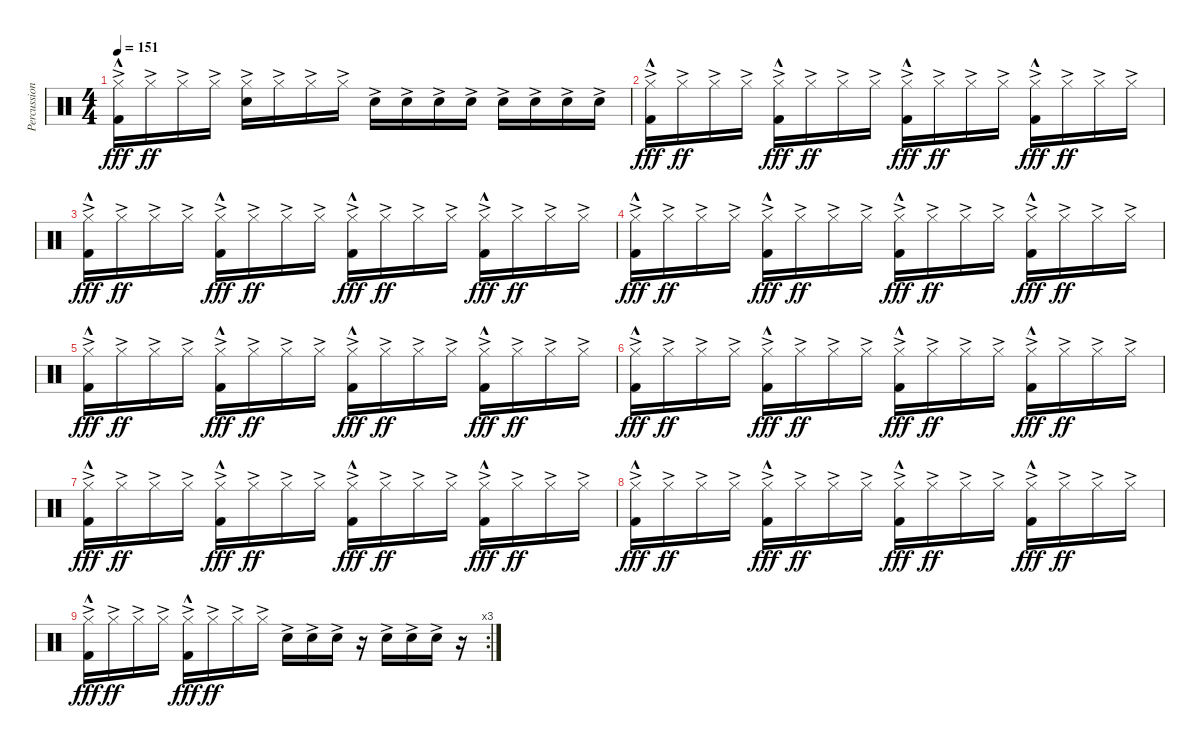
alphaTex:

\track ("Percussion" "Percussion") {instrument percussion}
\staff {score}
\articulation defaults
\ts (4 4)
\tempo 151
\clef neutral
\ks c
("Hi-Hat (closed)"{ac} "Kick (hit) 2"{hac}).16{dy fff} "Hi-Hat (closed)"{ac}.16{dy ff} "Hi-Hat (closed)"{ac}.16 "Hi-Hat (closed)"{ac}.16 ("Hi-Hat (closed)"{ac} "Snare (hit) 2"{ac}).16 "Hi-Hat (closed)"{ac}.16 "Hi-Hat (closed)"{ac}.16 "Hi-Hat (closed)"{ac}.16 "Snare (hit) 2"{ac}.16 "Snare (hit) 2"{ac}.16 "Snare (hit) 2"{ac}.16 "Snare (hit) 2"{ac}.16 "Snare (hit) 2"{ac}.16 "Snare (hit) 2"{ac}.16 "Snare (hit) 2"{ac}.16 "Snare (hit) 2"{ac}.16 |
("Hi-Hat (closed)"{ac} "Kick (hit) 2"{hac}).16{dy fff} "Hi-Hat (closed)"{ac}.16{dy ff} "Hi-Hat (closed)"{ac}.16 "Hi-Hat (closed)"{ac}.16 ("Hi-Hat (closed)"{ac} "Kick (hit) 2"{hac}).16{dy fff} "Hi-Hat (closed)"{ac}.16{dy ff} "Hi-Hat (closed)"{ac}.16 "Hi-Hat (closed)"{ac}.16 ("Hi-Hat (closed)"{ac} "Kick (hit) 2"{hac}).16{dy fff} "Hi-Hat (closed)"{ac}.16{dy ff} "Hi-Hat (closed)"{ac}.16 "Hi-Hat (closed)"{ac}.16 ("Hi-Hat (closed)"{ac} "Kick (hit) 2"{hac}).16{dy fff} "Hi-Hat (closed)"{ac}.16{dy ff} "Hi-Hat (closed)"{ac}.16 "Hi-Hat (closed)"{ac}.16 |
("Hi-Hat (closed)"{ac} "Kick (hit) 2"{hac}).16{dy fff} "Hi-Hat (closed)"{ac}.16{dy ff} "Hi-Hat (closed)"{ac}.16 "Hi-Hat (closed)"{ac}.16 ("Hi-Hat (closed)"{ac} "Kick (hit) 2"{hac}).16{dy fff} "Hi-Hat (closed)"{ac}.16{dy ff} "Hi-Hat (closed)"{ac}.16 "Hi-Hat (closed)"{ac}.16 ("Hi-Hat (closed)"{ac} "Kick (hit) 2"{hac}).16{dy fff} "Hi-Hat (closed)"{ac}.16{dy ff} "Hi-Hat (closed)"{ac}.16 "Hi-Hat (closed)"{ac}.16 ("Hi-Hat (closed)"{ac} "Kick (hit) 2"{hac}).16{dy fff} "Hi-Hat (closed)"{ac}.16{dy ff} "Hi-Hat (closed)"{ac}.16 "Hi-Hat (closed)"{ac}.16 |
("Hi-Hat (closed)"{ac} "Kick (hit) 2"{hac}).16{dy fff} "Hi-Hat (closed)"{ac}.16{dy ff} "Hi-Hat (closed)"{ac}.16 "Hi-Hat (closed)"{ac}.16 ("Hi-Hat (closed)"{ac} "Kick (hit) 2"{hac}).16{dy fff} "Hi-Hat (closed)"{ac}.16{dy ff} "Hi-Hat (closed)"{ac}.16 "Hi-Hat (closed)"{ac}.16 ("Hi-Hat (closed)"{ac} "Kick (hit) 2"{hac}).16{dy fff} "Hi-Hat (closed)"{ac}.16{dy ff} "Hi-Hat (closed)"{ac}.16 "Hi-Hat (closed)"{ac}.16 ("Hi-Hat (closed)"{ac} "Kick (hit) 2"{hac}).16{dy fff} "Hi-Hat (closed)"{ac}.16{dy ff} "Hi-Hat (closed)"{ac}.16 "Hi-Hat (closed)"{ac}.16 |
("Hi-Hat (closed)"{ac} "Kick (hit) 2"{hac}).16{dy fff} "Hi-Hat (closed)"{ac}.16{dy ff} "Hi-Hat (closed)"{ac}.16 "Hi-Hat (closed)"{ac}.16 ("Hi-Hat (closed)"{ac} "Kick (hit) 2"{hac}).16{dy fff} "Hi-Hat (closed)"{ac}.16{dy ff} "Hi-Hat (closed)"{ac}.16 "Hi-Hat (closed)"{ac}.16 ("Hi-Hat (closed)"{ac} "Kick (hit) 2"{hac}).16{dy fff} "Hi-Hat (closed)"{ac}.16{dy ff} "Hi-Hat (closed)"{ac}.16 "Hi-Hat (closed)"{ac}.16 ("Hi-Hat (closed)"{ac} "Kick (hit) 2"{hac}).16{dy fff} "Hi-Hat (closed)"{ac}.16{dy ff} "Hi-Hat (closed)"{ac}.16 "Hi-Hat (closed)"{ac}.16 |
("Hi-Hat (closed)"{ac} "Kick (hit) 2"{hac}).16{dy fff} "Hi-Hat (closed)"{ac}.16{dy ff} "Hi-Hat (closed)"{ac}.16 "Hi-Hat (closed)"{ac}.16 ("Hi-Hat (closed)"{ac} "Kick (hit) 2"{hac}).16{dy fff} "Hi-Hat (closed)"{ac}.16{dy ff} "Hi-Hat (closed)"{ac}.16 "Hi-Hat (closed)"{ac}.16 ("Hi-Hat (closed)"{ac} "Kick (hit) 2"{hac}).16{dy fff} "Hi-Hat (closed)"{ac}.16{dy ff} "Hi-Hat (closed)"{ac}.16 "Hi-Hat (closed)"{ac}.16 ("Hi-Hat (closed)"{ac} "Kick (hit) 2"{hac}).16{dy fff} "Hi-Hat (closed)"{ac}.16{dy ff} "Hi-Hat (closed)"{ac}.16 "Hi-Hat (closed)"{ac}.16 |
("Hi-Hat (closed)"{ac} "Kick (hit) 2"{hac}).16{dy fff} "Hi-Hat (closed)"{ac}.16{dy ff} "Hi-Hat (closed)"{ac}.16 "Hi-Hat (closed)"{ac}.16 ("Hi-Hat (closed)"{ac} "Kick (hit) 2"{hac}).16{dy fff} "Hi-Hat (closed)"{ac}.16{dy ff} "Hi-Hat (closed)"{ac}.16 "Hi-Hat (closed)"{ac}.16 ("Hi-Hat (closed)"{ac} "Kick (hit) 2"{hac}).16{dy fff} "Hi-Hat (closed)"{ac}.16{dy ff} "Hi-Hat (closed)"{ac}.16 "Hi-Hat (closed)"{ac}.16 ("Hi-Hat (closed)"{ac} "Kick (hit) 2"{hac}).16{dy fff} "Hi-Hat (closed)"{ac}.16{dy ff} "Hi-Hat (closed)"{ac}.16 "Hi-Hat (closed)"{ac}.16 |
("Hi-Hat (closed)"{ac} "Kick (hit) 2"{hac}).16{dy fff} "Hi-Hat (closed)"{ac}.16{dy ff} "Hi-Hat (closed)"{ac}.16 "Hi-Hat (closed)"{ac}.16 ("Hi-Hat (closed)"{ac} "Kick (hit) 2"{hac}).16{dy fff} "Hi-Hat (closed)"{ac}.16{dy ff} "Hi-Hat (closed)"{ac}.16 "Hi-Hat (closed)"{ac}.16 ("Hi-Hat (closed)"{ac} "Kick (hit) 2"{hac}).16{dy fff} "Hi-Hat (closed)"{ac}.16{dy ff} "Hi-Hat (closed)"{ac}.16 "Hi-Hat (closed)"{ac}.16 ("Hi-Hat (closed)"{ac} "Kick (hit) 2"{hac}).16{dy fff} "Hi-Hat (closed)"{ac}.16{dy ff} "Hi-Hat (closed)"{ac}.16 "Hi-Hat (closed)"{ac}.16 |
\rc 3
("Hi-Hat (closed)"{ac} "Kick (hit) 2"{hac}).16{dy fff} "Hi-Hat (closed)"{ac}.16{dy ff} "Hi-Hat (closed)"{ac}.16 "Hi-Hat (closed)"{ac}.16 ("Hi-Hat (closed)"{ac} "Kick (hit) 2"{hac}).16{dy fff} "Hi-Hat (closed)"{ac}.16{dy ff} "Hi-Hat (closed)"{ac}.16 "Hi-Hat (closed)"{ac}.16 "Snare (hit) 2"{ac}.16 "Snare (hit) 2"{ac}.16 "Snare (hit) 2"{ac}.16 r.16 "Snare (hit) 2"{ac}.16 "Snare (hit) 2"{ac}.16 "Snare (hit) 2"{ac}.16 r.16
